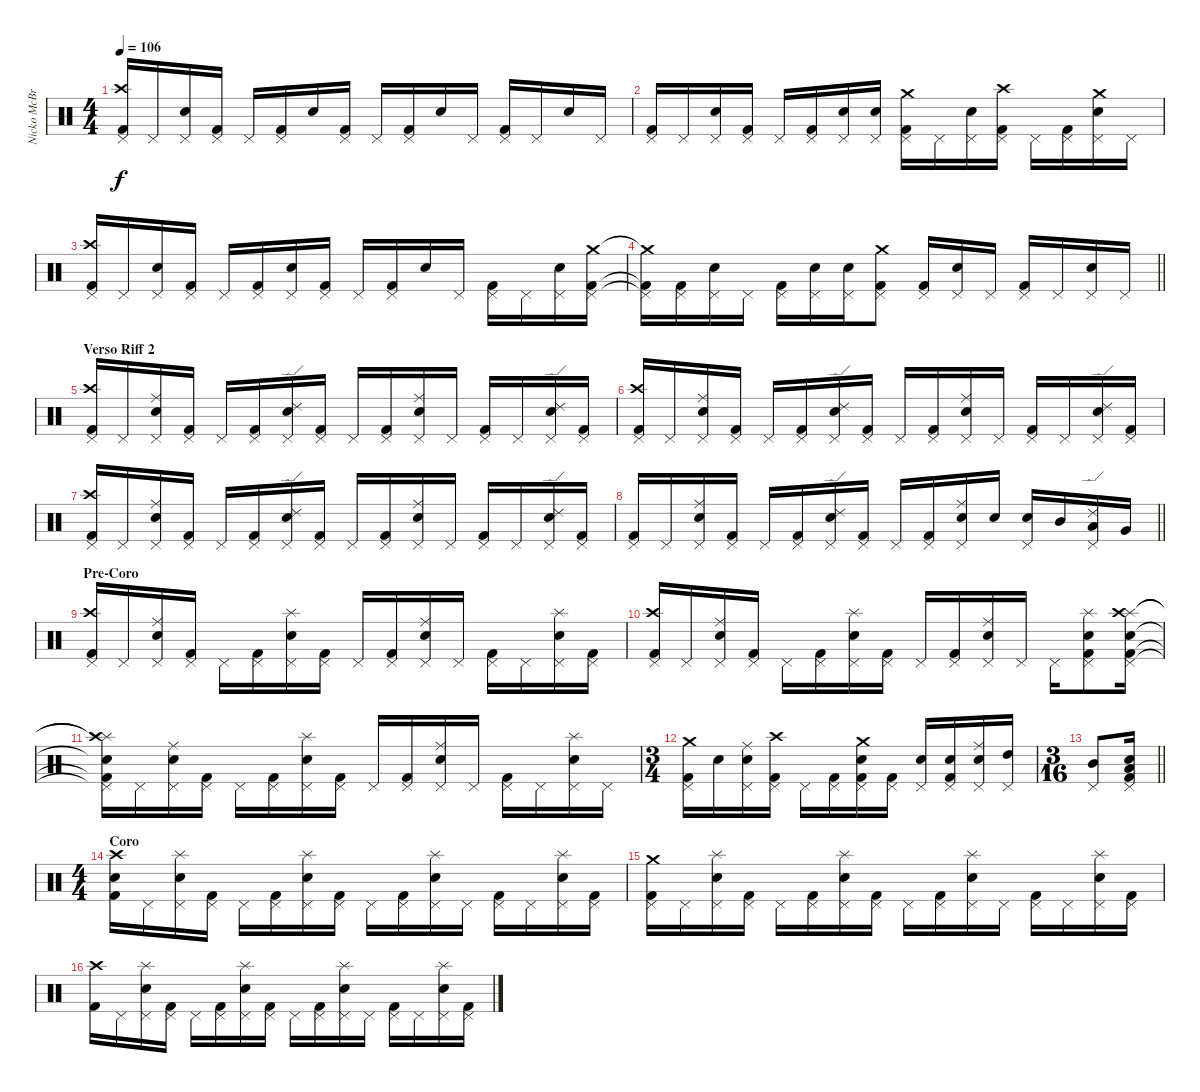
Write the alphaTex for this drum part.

\track ("Nicko McBrain" "Nicko McBr") {instrument percussion}
\staff {score}
\articulation defaults
\ts (4 4)
\tempo 106
\clef neutral
\ks c
("Pedal Hi-Hat (hit)" "Crash high (hit)" "Kick (hit) 2").16{dy f} "Pedal Hi-Hat (hit)".16 ("Pedal Hi-Hat (hit)" "Snare (hit) 2").16 ("Pedal Hi-Hat (hit)" "Kick (hit) 2").16 "Pedal Hi-Hat (hit)".16 ("Pedal Hi-Hat (hit)" "Kick (hit) 2").16 "Snare (hit) 2".16 ("Pedal Hi-Hat (hit)" "Kick (hit) 2").16 "Pedal Hi-Hat (hit)".16 ("Pedal Hi-Hat (hit)" "Kick (hit) 2").16 "Snare (hit) 2".16 "Pedal Hi-Hat (hit)".16 ("Pedal Hi-Hat (hit)" "Kick (hit) 2").16 "Pedal Hi-Hat (hit)".16 "Snare (hit) 2".16 "Pedal Hi-Hat (hit)".16 |
("Pedal Hi-Hat (hit)" "Kick (hit) 2").16 "Pedal Hi-Hat (hit)".16 ("Pedal Hi-Hat (hit)" "Snare (hit) 2").16 ("Pedal Hi-Hat (hit)" "Kick (hit) 2").16 "Pedal Hi-Hat (hit)".16 ("Pedal Hi-Hat (hit)" "Kick (hit) 2").16 ("Pedal Hi-Hat (hit)" "Snare (hit) 2").16 ("Pedal Hi-Hat (hit)" "Snare (hit) 2").16 ("Pedal Hi-Hat (hit)" "Crash medium (hit)" "Kick (hit) 2").16 "Pedal Hi-Hat (hit)".16 ("Pedal Hi-Hat (hit)" "Snare (hit) 2").16 ("Pedal Hi-Hat (hit)" "Crash high (hit)" "Kick (hit) 2").16 "Pedal Hi-Hat (hit)".16 ("Pedal Hi-Hat (hit)" "Kick (hit) 2").16 ("Pedal Hi-Hat (hit)" "Snare (hit) 2" "Crash medium (hit)").16 "Pedal Hi-Hat (hit)".16 |
("Pedal Hi-Hat (hit)" "Crash high (hit)" "Kick (hit) 2").16 "Pedal Hi-Hat (hit)".16 ("Pedal Hi-Hat (hit)" "Snare (hit) 2").16 ("Pedal Hi-Hat (hit)" "Kick (hit) 2").16 "Pedal Hi-Hat (hit)".16 ("Pedal Hi-Hat (hit)" "Kick (hit) 2").16 ("Pedal Hi-Hat (hit)" "Snare (hit) 2").16 ("Pedal Hi-Hat (hit)" "Kick (hit) 2").16 "Pedal Hi-Hat (hit)".16 ("Pedal Hi-Hat (hit)" "Kick (hit) 2").16 "Snare (hit) 2".16 "Pedal Hi-Hat (hit)".16 ("Pedal Hi-Hat (hit)" "Kick (hit) 2").16 "Pedal Hi-Hat (hit)".16 ("Pedal Hi-Hat (hit)" "Snare (hit) 2").16 ("Pedal Hi-Hat (hit)" "Crash medium (hit)" "Kick (hit) 2").16 |
\barLineRight lightlight
("Pedal Hi-Hat (hit)"{t} "Crash medium (hit)"{t} "Kick (hit) 2"{t}).16 ("Pedal Hi-Hat (hit)" "Kick (hit) 2").16 ("Pedal Hi-Hat (hit)" "Snare (hit) 2").16 "Pedal Hi-Hat (hit)".16 ("Pedal Hi-Hat (hit)" "Kick (hit) 2").16 ("Pedal Hi-Hat (hit)" "Snare (hit) 2").16 ("Pedal Hi-Hat (hit)" "Snare (hit) 2").16 ("Pedal Hi-Hat (hit)" "Crash medium (hit)" "Kick (hit) 2").8 ("Pedal Hi-Hat (hit)" "Kick (hit) 2").16 ("Pedal Hi-Hat (hit)" "Snare (hit) 2").16 "Pedal Hi-Hat (hit)".16 ("Pedal Hi-Hat (hit)" "Kick (hit) 2").16 "Pedal Hi-Hat (hit)".16 ("Pedal Hi-Hat (hit)" "Snare (hit) 2").16 "Pedal Hi-Hat (hit)".16 |
\section ("" "Verso Riff 2")
("Pedal Hi-Hat (hit)" "Crash high (hit)" "Kick (hit) 2").16 "Pedal Hi-Hat (hit)".16 ("Pedal Hi-Hat (hit)" "Snare (hit) 2" "Ride (middle)").16 ("Pedal Hi-Hat (hit)" "Kick (hit) 2").16 "Pedal Hi-Hat (hit)".16 ("Pedal Hi-Hat (hit)" "Kick (hit) 2").16 ("Pedal Hi-Hat (hit)" "Snare (hit) 2" "Ride (edge) 2").16 ("Pedal Hi-Hat (hit)" "Kick (hit) 2").16 "Pedal Hi-Hat (hit)".16 ("Pedal Hi-Hat (hit)" "Kick (hit) 2").16 ("Pedal Hi-Hat (hit)" "Snare (hit) 2" "Ride (middle)").16 "Pedal Hi-Hat (hit)".16 ("Pedal Hi-Hat (hit)" "Kick (hit) 2").16 "Pedal Hi-Hat (hit)".16 ("Pedal Hi-Hat (hit)" "Snare (hit) 2" "Ride (edge) 2").16 ("Pedal Hi-Hat (hit)" "Kick (hit) 2").16 |
("Pedal Hi-Hat (hit)" "Crash high (hit)" "Kick (hit) 2").16 "Pedal Hi-Hat (hit)".16 ("Pedal Hi-Hat (hit)" "Snare (hit) 2" "Ride (middle)").16 ("Pedal Hi-Hat (hit)" "Kick (hit) 2").16 "Pedal Hi-Hat (hit)".16 ("Pedal Hi-Hat (hit)" "Kick (hit) 2").16 ("Pedal Hi-Hat (hit)" "Snare (hit) 2" "Ride (edge) 2").16 ("Pedal Hi-Hat (hit)" "Kick (hit) 2").16 "Pedal Hi-Hat (hit)".16 ("Pedal Hi-Hat (hit)" "Kick (hit) 2").16 ("Pedal Hi-Hat (hit)" "Snare (hit) 2" "Ride (middle)").16 "Pedal Hi-Hat (hit)".16 ("Pedal Hi-Hat (hit)" "Kick (hit) 2").16 "Pedal Hi-Hat (hit)".16 ("Pedal Hi-Hat (hit)" "Snare (hit) 2" "Ride (edge) 2").16 ("Pedal Hi-Hat (hit)" "Kick (hit) 2").16 |
("Pedal Hi-Hat (hit)" "Crash high (hit)" "Kick (hit) 2").16 "Pedal Hi-Hat (hit)".16 ("Pedal Hi-Hat (hit)" "Snare (hit) 2" "Ride (middle)").16 ("Pedal Hi-Hat (hit)" "Kick (hit) 2").16 "Pedal Hi-Hat (hit)".16 ("Pedal Hi-Hat (hit)" "Kick (hit) 2").16 ("Pedal Hi-Hat (hit)" "Snare (hit) 2" "Ride (edge) 2").16 ("Pedal Hi-Hat (hit)" "Kick (hit) 2").16 "Pedal Hi-Hat (hit)".16 ("Pedal Hi-Hat (hit)" "Kick (hit) 2").16 ("Pedal Hi-Hat (hit)" "Snare (hit) 2" "Ride (middle)").16 "Pedal Hi-Hat (hit)".16 ("Pedal Hi-Hat (hit)" "Kick (hit) 2").16 "Pedal Hi-Hat (hit)".16 ("Pedal Hi-Hat (hit)" "Snare (hit) 2" "Ride (edge) 2").16 ("Pedal Hi-Hat (hit)" "Kick (hit) 2").16 |
\barLineRight lightlight
("Pedal Hi-Hat (hit)" "Kick (hit) 2").16 "Pedal Hi-Hat (hit)".16 ("Pedal Hi-Hat (hit)" "Snare (hit) 2" "Ride (middle)").16 ("Pedal Hi-Hat (hit)" "Kick (hit) 2").16 "Pedal Hi-Hat (hit)".16 ("Pedal Hi-Hat (hit)" "Kick (hit) 2").16 ("Pedal Hi-Hat (hit)" "Snare (hit) 2" "Ride (edge) 2").16 ("Pedal Hi-Hat (hit)" "Kick (hit) 2").16 "Pedal Hi-Hat (hit)".16 ("Pedal Hi-Hat (hit)" "Kick (hit) 2").16 ("Pedal Hi-Hat (hit)" "Snare (hit) 2" "Ride (middle)").16 "Snare (hit) 2".16 ("Pedal Hi-Hat (hit)" "Snare (hit) 2").16 "Mid Tom (hit)".16 ("Pedal Hi-Hat (hit)" "Low Tom (hit)" "Ride (edge) 2").16 "Very Low Tom (hit)".16 |
\section ("" "Pre-Coro")
("Pedal Hi-Hat (hit)" "Crash high (hit)" "Kick (hit) 2").16 "Pedal Hi-Hat (hit)".16 ("Pedal Hi-Hat (hit)" "Snare (hit) 2" "Ride (middle)").16 ("Pedal Hi-Hat (hit)" "Kick (hit) 2").16 "Pedal Hi-Hat (hit)".16 ("Pedal Hi-Hat (hit)" "Kick (hit) 2").16 ("Pedal Hi-Hat (hit)" "Snare (hit) 2" "Splash (hit)").16 ("Pedal Hi-Hat (hit)" "Kick (hit) 2").16 "Pedal Hi-Hat (hit)".16 ("Pedal Hi-Hat (hit)" "Kick (hit) 2").16 ("Pedal Hi-Hat (hit)" "Snare (hit) 2" "Ride (middle)").16 "Pedal Hi-Hat (hit)".16 ("Pedal Hi-Hat (hit)" "Kick (hit) 2").16 "Pedal Hi-Hat (hit)".16 ("Pedal Hi-Hat (hit)" "Snare (hit) 2" "Splash (hit)").16 ("Pedal Hi-Hat (hit)" "Kick (hit) 2").16 |
("Pedal Hi-Hat (hit)" "Crash high (hit)" "Kick (hit) 2").16 "Pedal Hi-Hat (hit)".16 ("Pedal Hi-Hat (hit)" "Snare (hit) 2" "Ride (middle)").16 ("Pedal Hi-Hat (hit)" "Kick (hit) 2").16 "Pedal Hi-Hat (hit)".16 ("Pedal Hi-Hat (hit)" "Kick (hit) 2").16 ("Pedal Hi-Hat (hit)" "Snare (hit) 2" "Splash (hit)").16 ("Pedal Hi-Hat (hit)" "Kick (hit) 2").16 "Pedal Hi-Hat (hit)".16 ("Pedal Hi-Hat (hit)" "Kick (hit) 2").16 ("Pedal Hi-Hat (hit)" "Snare (hit) 2" "Ride (middle)").16 "Pedal Hi-Hat (hit)".16 "Pedal Hi-Hat (hit)".16 ("Pedal Hi-Hat (hit)" "Snare (hit) 2" "Splash (hit)" "Kick (hit) 2").8 ("Pedal Hi-Hat (hit)" "Snare (hit) 2" "Splash (hit)" "Crash high (hit)" "Kick (hit) 2").16 |
("Pedal Hi-Hat (hit)"{t} "Snare (hit) 2"{t} "Splash (hit)"{t} "Crash high (hit)"{t} "Kick (hit) 2"{t}).16 "Pedal Hi-Hat (hit)".16 ("Pedal Hi-Hat (hit)" "Snare (hit) 2" "Ride (middle)").16 ("Pedal Hi-Hat (hit)" "Kick (hit) 2").16 "Pedal Hi-Hat (hit)".16 ("Pedal Hi-Hat (hit)" "Kick (hit) 2").16 ("Pedal Hi-Hat (hit)" "Snare (hit) 2" "Splash (hit)").16 ("Pedal Hi-Hat (hit)" "Kick (hit) 2").16 "Pedal Hi-Hat (hit)".16 ("Pedal Hi-Hat (hit)" "Kick (hit) 2").16 ("Pedal Hi-Hat (hit)" "Snare (hit) 2" "Ride (middle)").16 "Pedal Hi-Hat (hit)".16 ("Pedal Hi-Hat (hit)" "Kick (hit) 2").16 "Pedal Hi-Hat (hit)".16 ("Pedal Hi-Hat (hit)" "Snare (hit) 2" "Splash (hit)").16 "Pedal Hi-Hat (hit)".16 |
\ts (3 4)
("Pedal Hi-Hat (hit)" "Crash medium (hit)" "Kick (hit) 2").16 "Snare (hit) 2".16 ("Pedal Hi-Hat (hit)" "Snare (hit) 2" "Ride (middle)").16 ("Pedal Hi-Hat (hit)" "Crash high (hit)" "Kick (hit) 2").16 "Pedal Hi-Hat (hit)".16 ("Pedal Hi-Hat (hit)" "Kick (hit) 2").16 ("Pedal Hi-Hat (hit)" "Snare (hit) 2" "Crash medium (hit)" "Kick (hit) 2").16 ("Pedal Hi-Hat (hit)" "Kick (hit) 2").16 ("Pedal Hi-Hat (hit)" "Snare (hit) 2").16 ("Pedal Hi-Hat (hit)" "Snare (hit) 2" "Kick (hit) 2").16 ("Pedal Hi-Hat (hit)" "Snare (hit) 2" "Ride (middle)").16 ("Pedal Hi-Hat (hit)" "High Tom (hit)").16 |
\ts (3 16)
\barLineRight lightlight
("Pedal Hi-Hat (hit)" "Mid Tom (hit)").8 ("Pedal Hi-Hat (hit)" "Snare (hit) 2" "Low Tom (hit)" "Kick (hit) 2").16 |
\ts (4 4)
\section ("" "Coro")
("Snare (hit) 2" "Crash high (hit)" "Kick (hit) 2").16 "Pedal Hi-Hat (hit)".16 ("Pedal Hi-Hat (hit)" "Snare (hit) 2" "Splash (hit)").16 ("Pedal Hi-Hat (hit)" "Kick (hit) 2").16 "Pedal Hi-Hat (hit)".16 ("Pedal Hi-Hat (hit)" "Kick (hit) 2").16 ("Pedal Hi-Hat (hit)" "Snare (hit) 2" "Splash (hit)").16 ("Pedal Hi-Hat (hit)" "Kick (hit) 2").16 "Pedal Hi-Hat (hit)".16 ("Pedal Hi-Hat (hit)" "Kick (hit) 2").16 ("Pedal Hi-Hat (hit)" "Snare (hit) 2" "Splash (hit)").16 "Pedal Hi-Hat (hit)".16 ("Pedal Hi-Hat (hit)" "Kick (hit) 2").16 "Pedal Hi-Hat (hit)".16 ("Pedal Hi-Hat (hit)" "Snare (hit) 2" "Splash (hit)").16 ("Pedal Hi-Hat (hit)" "Kick (hit) 2").16 |
("Pedal Hi-Hat (hit)" "Crash medium (hit)" "Kick (hit) 2").16 "Pedal Hi-Hat (hit)".16 ("Pedal Hi-Hat (hit)" "Snare (hit) 2" "Splash (hit)").16 ("Pedal Hi-Hat (hit)" "Kick (hit) 2").16 "Pedal Hi-Hat (hit)".16 ("Pedal Hi-Hat (hit)" "Kick (hit) 2").16 ("Pedal Hi-Hat (hit)" "Snare (hit) 2" "Splash (hit)").16 ("Pedal Hi-Hat (hit)" "Kick (hit) 2").16 "Pedal Hi-Hat (hit)".16 ("Pedal Hi-Hat (hit)" "Kick (hit) 2").16 ("Pedal Hi-Hat (hit)" "Snare (hit) 2" "Splash (hit)").16 "Pedal Hi-Hat (hit)".16 ("Pedal Hi-Hat (hit)" "Kick (hit) 2").16 "Pedal Hi-Hat (hit)".16 ("Pedal Hi-Hat (hit)" "Snare (hit) 2" "Splash (hit)").16 ("Pedal Hi-Hat (hit)" "Kick (hit) 2").16 |
("Crash high (hit)" "Kick (hit) 2").16 "Pedal Hi-Hat (hit)".16 ("Pedal Hi-Hat (hit)" "Snare (hit) 2" "Splash (hit)").16 ("Pedal Hi-Hat (hit)" "Kick (hit) 2").16 "Pedal Hi-Hat (hit)".16 ("Pedal Hi-Hat (hit)" "Kick (hit) 2").16 ("Pedal Hi-Hat (hit)" "Snare (hit) 2" "Splash (hit)").16 ("Pedal Hi-Hat (hit)" "Kick (hit) 2").16 "Pedal Hi-Hat (hit)".16 ("Pedal Hi-Hat (hit)" "Kick (hit) 2").16 ("Pedal Hi-Hat (hit)" "Snare (hit) 2" "Splash (hit)").16 "Pedal Hi-Hat (hit)".16 ("Pedal Hi-Hat (hit)" "Kick (hit) 2").16 "Pedal Hi-Hat (hit)".16 ("Pedal Hi-Hat (hit)" "Snare (hit) 2" "Splash (hit)").16 ("Pedal Hi-Hat (hit)" "Kick (hit) 2").16
